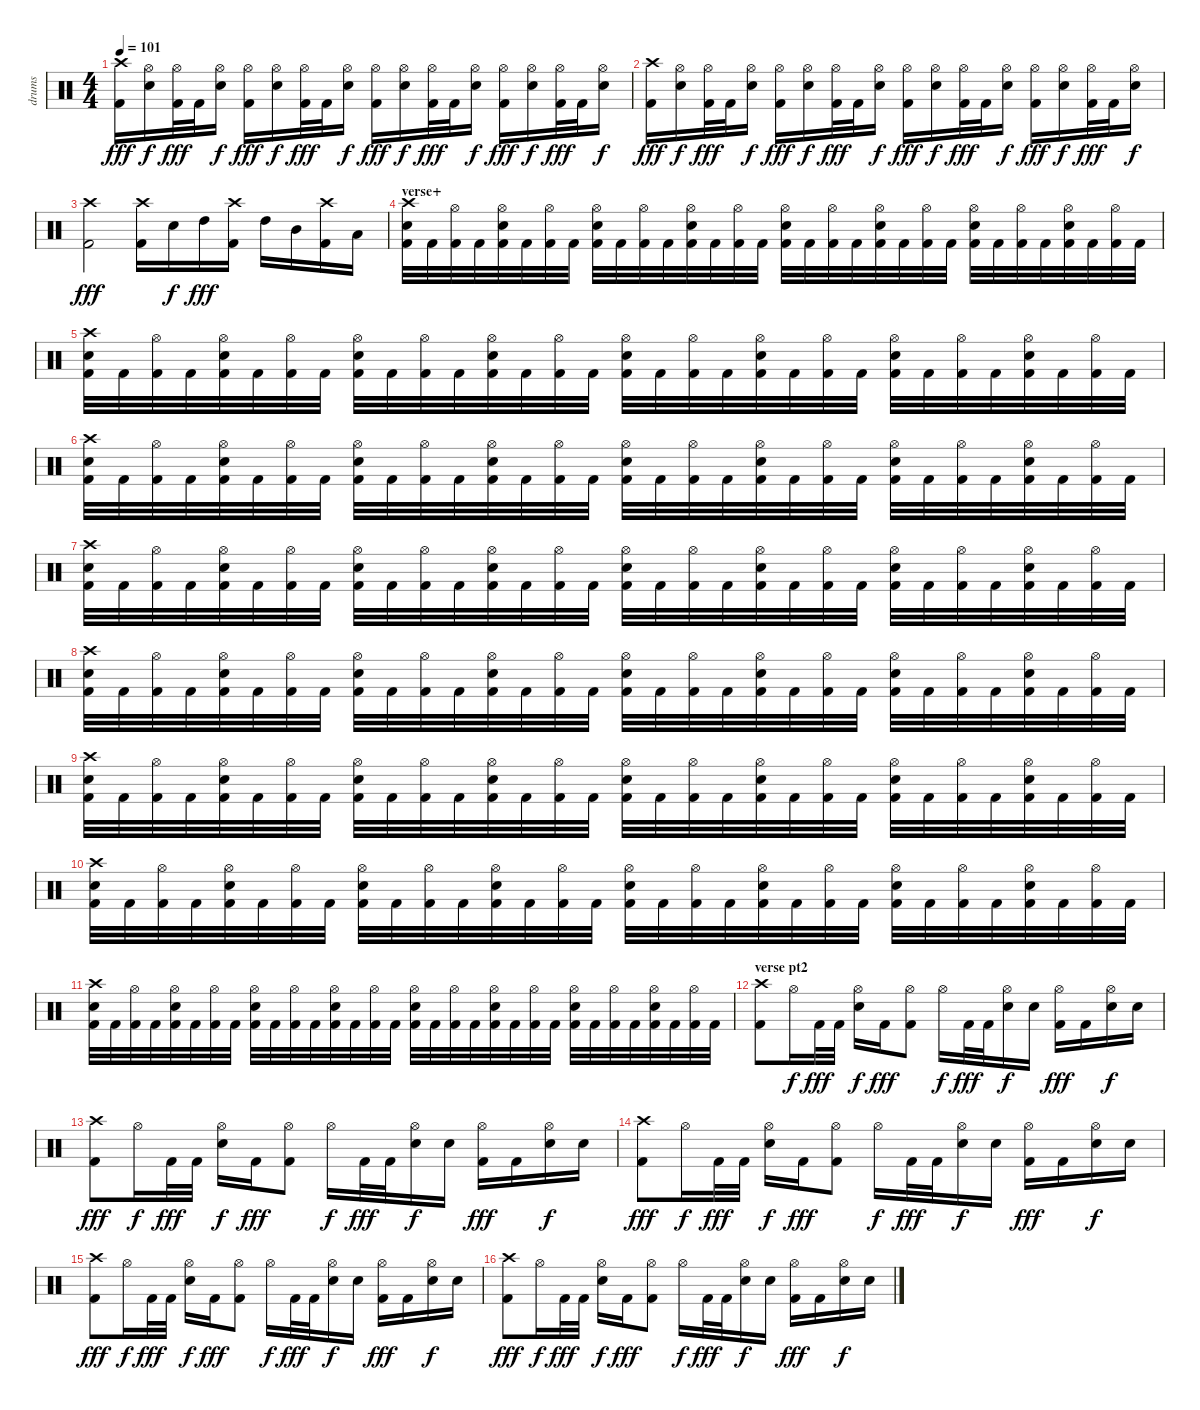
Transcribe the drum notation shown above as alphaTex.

\track ("drums" "drums") {instrument percussion}
\staff {score}
\articulation defaults
\ts (4 4)
\tempo 101
\clef neutral
\ks c
("Crash high (hit)" "Kick (hit) 2").16{dy fff} ("Hi-Hat (open)" "Snare (hit) 2").16{dy f} ("Hi-Hat (open)" "Kick (hit) 2").32{dy fff} "Kick (hit) 2".32 ("Hi-Hat (open)" "Snare (hit) 2").16{dy f} ("Hi-Hat (open)" "Kick (hit) 2").16{dy fff} ("Hi-Hat (open)" "Snare (hit) 2").16{dy f} ("Hi-Hat (open)" "Kick (hit) 2").32{dy fff} "Kick (hit) 2".32 ("Hi-Hat (open)" "Snare (hit) 2").16{dy f} ("Hi-Hat (open)" "Kick (hit) 2").16{dy fff} ("Hi-Hat (open)" "Snare (hit) 2").16{dy f} ("Hi-Hat (open)" "Kick (hit) 2").32{dy fff} "Kick (hit) 2".32 ("Hi-Hat (open)" "Snare (hit) 2").16{dy f} ("Hi-Hat (open)" "Kick (hit) 2").16{dy fff} ("Hi-Hat (open)" "Snare (hit) 2").16{dy f} ("Hi-Hat (open)" "Kick (hit) 2").32{dy fff} "Kick (hit) 2".32 ("Hi-Hat (open)" "Snare (hit) 2").16{dy f} |
("Crash high (hit)" "Kick (hit) 2").16{dy fff} ("Hi-Hat (open)" "Snare (hit) 2").16{dy f} ("Hi-Hat (open)" "Kick (hit) 2").32{dy fff} "Kick (hit) 2".32 ("Hi-Hat (open)" "Snare (hit) 2").16{dy f} ("Hi-Hat (open)" "Kick (hit) 2").16{dy fff} ("Hi-Hat (open)" "Snare (hit) 2").16{dy f} ("Hi-Hat (open)" "Kick (hit) 2").32{dy fff} "Kick (hit) 2".32 ("Hi-Hat (open)" "Snare (hit) 2").16{dy f} ("Hi-Hat (open)" "Kick (hit) 2").16{dy fff} ("Hi-Hat (open)" "Snare (hit) 2").16{dy f} ("Hi-Hat (open)" "Kick (hit) 2").32{dy fff} "Kick (hit) 2".32 ("Hi-Hat (open)" "Snare (hit) 2").16{dy f} ("Hi-Hat (open)" "Kick (hit) 2").16{dy fff} ("Hi-Hat (open)" "Snare (hit) 2").16{dy f} ("Hi-Hat (open)" "Kick (hit) 2").32{dy fff} "Kick (hit) 2".32 ("Hi-Hat (open)" "Snare (hit) 2").16{dy f} |
("Crash high (hit)" "Kick (hit) 2").2{dy fff} ("Crash high (hit)" "Kick (hit) 2").16 "Snare (hit) 2".16{dy f} "High Tom (hit)".16{dy fff} ("Crash high (hit)" "Kick (hit) 2").16 "High Tom (hit)".16 "Mid Tom (hit)".16 ("Crash high (hit)" "Kick (hit) 2").16 "Low Tom (hit)".16 |
\section ("" "verse+")
("Crash high (hit)" "Snare (hit) 2" "Kick (hit) 2").32 "Kick (hit) 2".32 ("Hi-Hat (open)" "Kick (hit) 2").32 "Kick (hit) 2".32 ("Hi-Hat (open)" "Snare (hit) 2" "Kick (hit) 2").32 "Kick (hit) 2".32 ("Hi-Hat (open)" "Kick (hit) 2").32 "Kick (hit) 2".32 ("Hi-Hat (open)" "Snare (hit) 2" "Kick (hit) 2").32 "Kick (hit) 2".32 ("Hi-Hat (open)" "Kick (hit) 2").32 "Kick (hit) 2".32 ("Hi-Hat (open)" "Snare (hit) 2" "Kick (hit) 2").32 "Kick (hit) 2".32 ("Hi-Hat (open)" "Kick (hit) 2").32 "Kick (hit) 2".32 ("Hi-Hat (open)" "Snare (hit) 2" "Kick (hit) 2").32 "Kick (hit) 2".32 ("Hi-Hat (open)" "Kick (hit) 2").32 "Kick (hit) 2".32 ("Hi-Hat (open)" "Snare (hit) 2" "Kick (hit) 2").32 "Kick (hit) 2".32 ("Hi-Hat (open)" "Kick (hit) 2").32 "Kick (hit) 2".32 ("Hi-Hat (open)" "Snare (hit) 2" "Kick (hit) 2").32 "Kick (hit) 2".32 ("Hi-Hat (open)" "Kick (hit) 2").32 "Kick (hit) 2".32 ("Hi-Hat (open)" "Snare (hit) 2" "Kick (hit) 2").32 "Kick (hit) 2".32 ("Hi-Hat (open)" "Kick (hit) 2").32 "Kick (hit) 2".32 |
("Crash high (hit)" "Snare (hit) 2" "Kick (hit) 2").32 "Kick (hit) 2".32 ("Hi-Hat (open)" "Kick (hit) 2").32 "Kick (hit) 2".32 ("Hi-Hat (open)" "Snare (hit) 2" "Kick (hit) 2").32 "Kick (hit) 2".32 ("Hi-Hat (open)" "Kick (hit) 2").32 "Kick (hit) 2".32 ("Hi-Hat (open)" "Snare (hit) 2" "Kick (hit) 2").32 "Kick (hit) 2".32 ("Hi-Hat (open)" "Kick (hit) 2").32 "Kick (hit) 2".32 ("Hi-Hat (open)" "Snare (hit) 2" "Kick (hit) 2").32 "Kick (hit) 2".32 ("Hi-Hat (open)" "Kick (hit) 2").32 "Kick (hit) 2".32 ("Hi-Hat (open)" "Snare (hit) 2" "Kick (hit) 2").32 "Kick (hit) 2".32 ("Hi-Hat (open)" "Kick (hit) 2").32 "Kick (hit) 2".32 ("Hi-Hat (open)" "Snare (hit) 2" "Kick (hit) 2").32 "Kick (hit) 2".32 ("Hi-Hat (open)" "Kick (hit) 2").32 "Kick (hit) 2".32 ("Hi-Hat (open)" "Snare (hit) 2" "Kick (hit) 2").32 "Kick (hit) 2".32 ("Hi-Hat (open)" "Kick (hit) 2").32 "Kick (hit) 2".32 ("Hi-Hat (open)" "Snare (hit) 2" "Kick (hit) 2").32 "Kick (hit) 2".32 ("Hi-Hat (open)" "Kick (hit) 2").32 "Kick (hit) 2".32 |
("Crash high (hit)" "Snare (hit) 2" "Kick (hit) 2").32 "Kick (hit) 2".32 ("Hi-Hat (open)" "Kick (hit) 2").32 "Kick (hit) 2".32 ("Hi-Hat (open)" "Snare (hit) 2" "Kick (hit) 2").32 "Kick (hit) 2".32 ("Hi-Hat (open)" "Kick (hit) 2").32 "Kick (hit) 2".32 ("Hi-Hat (open)" "Snare (hit) 2" "Kick (hit) 2").32 "Kick (hit) 2".32 ("Hi-Hat (open)" "Kick (hit) 2").32 "Kick (hit) 2".32 ("Hi-Hat (open)" "Snare (hit) 2" "Kick (hit) 2").32 "Kick (hit) 2".32 ("Hi-Hat (open)" "Kick (hit) 2").32 "Kick (hit) 2".32 ("Hi-Hat (open)" "Snare (hit) 2" "Kick (hit) 2").32 "Kick (hit) 2".32 ("Hi-Hat (open)" "Kick (hit) 2").32 "Kick (hit) 2".32 ("Hi-Hat (open)" "Snare (hit) 2" "Kick (hit) 2").32 "Kick (hit) 2".32 ("Hi-Hat (open)" "Kick (hit) 2").32 "Kick (hit) 2".32 ("Hi-Hat (open)" "Snare (hit) 2" "Kick (hit) 2").32 "Kick (hit) 2".32 ("Hi-Hat (open)" "Kick (hit) 2").32 "Kick (hit) 2".32 ("Hi-Hat (open)" "Snare (hit) 2" "Kick (hit) 2").32 "Kick (hit) 2".32 ("Hi-Hat (open)" "Kick (hit) 2").32 "Kick (hit) 2".32 |
("Crash high (hit)" "Snare (hit) 2" "Kick (hit) 2").32 "Kick (hit) 2".32 ("Hi-Hat (open)" "Kick (hit) 2").32 "Kick (hit) 2".32 ("Hi-Hat (open)" "Snare (hit) 2" "Kick (hit) 2").32 "Kick (hit) 2".32 ("Hi-Hat (open)" "Kick (hit) 2").32 "Kick (hit) 2".32 ("Hi-Hat (open)" "Snare (hit) 2" "Kick (hit) 2").32 "Kick (hit) 2".32 ("Hi-Hat (open)" "Kick (hit) 2").32 "Kick (hit) 2".32 ("Hi-Hat (open)" "Snare (hit) 2" "Kick (hit) 2").32 "Kick (hit) 2".32 ("Hi-Hat (open)" "Kick (hit) 2").32 "Kick (hit) 2".32 ("Hi-Hat (open)" "Snare (hit) 2" "Kick (hit) 2").32 "Kick (hit) 2".32 ("Hi-Hat (open)" "Kick (hit) 2").32 "Kick (hit) 2".32 ("Hi-Hat (open)" "Snare (hit) 2" "Kick (hit) 2").32 "Kick (hit) 2".32 ("Hi-Hat (open)" "Kick (hit) 2").32 "Kick (hit) 2".32 ("Hi-Hat (open)" "Snare (hit) 2" "Kick (hit) 2").32 "Kick (hit) 2".32 ("Hi-Hat (open)" "Kick (hit) 2").32 "Kick (hit) 2".32 ("Hi-Hat (open)" "Snare (hit) 2" "Kick (hit) 2").32 "Kick (hit) 2".32 ("Hi-Hat (open)" "Kick (hit) 2").32 "Kick (hit) 2".32 |
("Crash high (hit)" "Snare (hit) 2" "Kick (hit) 2").32 "Kick (hit) 2".32 ("Hi-Hat (open)" "Kick (hit) 2").32 "Kick (hit) 2".32 ("Hi-Hat (open)" "Snare (hit) 2" "Kick (hit) 2").32 "Kick (hit) 2".32 ("Hi-Hat (open)" "Kick (hit) 2").32 "Kick (hit) 2".32 ("Hi-Hat (open)" "Snare (hit) 2" "Kick (hit) 2").32 "Kick (hit) 2".32 ("Hi-Hat (open)" "Kick (hit) 2").32 "Kick (hit) 2".32 ("Hi-Hat (open)" "Snare (hit) 2" "Kick (hit) 2").32 "Kick (hit) 2".32 ("Hi-Hat (open)" "Kick (hit) 2").32 "Kick (hit) 2".32 ("Hi-Hat (open)" "Snare (hit) 2" "Kick (hit) 2").32 "Kick (hit) 2".32 ("Hi-Hat (open)" "Kick (hit) 2").32 "Kick (hit) 2".32 ("Hi-Hat (open)" "Snare (hit) 2" "Kick (hit) 2").32 "Kick (hit) 2".32 ("Hi-Hat (open)" "Kick (hit) 2").32 "Kick (hit) 2".32 ("Hi-Hat (open)" "Snare (hit) 2" "Kick (hit) 2").32 "Kick (hit) 2".32 ("Hi-Hat (open)" "Kick (hit) 2").32 "Kick (hit) 2".32 ("Hi-Hat (open)" "Snare (hit) 2" "Kick (hit) 2").32 "Kick (hit) 2".32 ("Hi-Hat (open)" "Kick (hit) 2").32 "Kick (hit) 2".32 |
("Crash high (hit)" "Snare (hit) 2" "Kick (hit) 2").32 "Kick (hit) 2".32 ("Hi-Hat (open)" "Kick (hit) 2").32 "Kick (hit) 2".32 ("Hi-Hat (open)" "Snare (hit) 2" "Kick (hit) 2").32 "Kick (hit) 2".32 ("Hi-Hat (open)" "Kick (hit) 2").32 "Kick (hit) 2".32 ("Hi-Hat (open)" "Snare (hit) 2" "Kick (hit) 2").32 "Kick (hit) 2".32 ("Hi-Hat (open)" "Kick (hit) 2").32 "Kick (hit) 2".32 ("Hi-Hat (open)" "Snare (hit) 2" "Kick (hit) 2").32 "Kick (hit) 2".32 ("Hi-Hat (open)" "Kick (hit) 2").32 "Kick (hit) 2".32 ("Hi-Hat (open)" "Snare (hit) 2" "Kick (hit) 2").32 "Kick (hit) 2".32 ("Hi-Hat (open)" "Kick (hit) 2").32 "Kick (hit) 2".32 ("Hi-Hat (open)" "Snare (hit) 2" "Kick (hit) 2").32 "Kick (hit) 2".32 ("Hi-Hat (open)" "Kick (hit) 2").32 "Kick (hit) 2".32 ("Hi-Hat (open)" "Snare (hit) 2" "Kick (hit) 2").32 "Kick (hit) 2".32 ("Hi-Hat (open)" "Kick (hit) 2").32 "Kick (hit) 2".32 ("Hi-Hat (open)" "Snare (hit) 2" "Kick (hit) 2").32 "Kick (hit) 2".32 ("Hi-Hat (open)" "Kick (hit) 2").32 "Kick (hit) 2".32 |
("Crash high (hit)" "Snare (hit) 2" "Kick (hit) 2").32 "Kick (hit) 2".32 ("Hi-Hat (open)" "Kick (hit) 2").32 "Kick (hit) 2".32 ("Hi-Hat (open)" "Snare (hit) 2" "Kick (hit) 2").32 "Kick (hit) 2".32 ("Hi-Hat (open)" "Kick (hit) 2").32 "Kick (hit) 2".32 ("Hi-Hat (open)" "Snare (hit) 2" "Kick (hit) 2").32 "Kick (hit) 2".32 ("Hi-Hat (open)" "Kick (hit) 2").32 "Kick (hit) 2".32 ("Hi-Hat (open)" "Snare (hit) 2" "Kick (hit) 2").32 "Kick (hit) 2".32 ("Hi-Hat (open)" "Kick (hit) 2").32 "Kick (hit) 2".32 ("Hi-Hat (open)" "Snare (hit) 2" "Kick (hit) 2").32 "Kick (hit) 2".32 ("Hi-Hat (open)" "Kick (hit) 2").32 "Kick (hit) 2".32 ("Hi-Hat (open)" "Snare (hit) 2" "Kick (hit) 2").32 "Kick (hit) 2".32 ("Hi-Hat (open)" "Kick (hit) 2").32 "Kick (hit) 2".32 ("Hi-Hat (open)" "Snare (hit) 2" "Kick (hit) 2").32 "Kick (hit) 2".32 ("Hi-Hat (open)" "Kick (hit) 2").32 "Kick (hit) 2".32 ("Hi-Hat (open)" "Snare (hit) 2" "Kick (hit) 2").32 "Kick (hit) 2".32 ("Hi-Hat (open)" "Kick (hit) 2").32 "Kick (hit) 2".32 |
("Crash high (hit)" "Snare (hit) 2" "Kick (hit) 2").32 "Kick (hit) 2".32 ("Hi-Hat (open)" "Kick (hit) 2").32 "Kick (hit) 2".32 ("Hi-Hat (open)" "Snare (hit) 2" "Kick (hit) 2").32 "Kick (hit) 2".32 ("Hi-Hat (open)" "Kick (hit) 2").32 "Kick (hit) 2".32 ("Hi-Hat (open)" "Snare (hit) 2" "Kick (hit) 2").32 "Kick (hit) 2".32 ("Hi-Hat (open)" "Kick (hit) 2").32 "Kick (hit) 2".32 ("Hi-Hat (open)" "Snare (hit) 2" "Kick (hit) 2").32 "Kick (hit) 2".32 ("Hi-Hat (open)" "Kick (hit) 2").32 "Kick (hit) 2".32 ("Hi-Hat (open)" "Snare (hit) 2" "Kick (hit) 2").32 "Kick (hit) 2".32 ("Hi-Hat (open)" "Kick (hit) 2").32 "Kick (hit) 2".32 ("Hi-Hat (open)" "Snare (hit) 2" "Kick (hit) 2").32 "Kick (hit) 2".32 ("Hi-Hat (open)" "Kick (hit) 2").32 "Kick (hit) 2".32 ("Hi-Hat (open)" "Snare (hit) 2" "Kick (hit) 2").32 "Kick (hit) 2".32 ("Hi-Hat (open)" "Kick (hit) 2").32 "Kick (hit) 2".32 ("Hi-Hat (open)" "Snare (hit) 2" "Kick (hit) 2").32 "Kick (hit) 2".32 ("Hi-Hat (open)" "Kick (hit) 2").32 "Kick (hit) 2".32 |
\section ("" "verse pt2")
("Crash high (hit)" "Kick (hit) 2").8 "Hi-Hat (open)".16{dy f} "Kick (hit) 2".32{dy fff} "Kick (hit) 2".32 ("Hi-Hat (open)" "Snare (hit) 2").16{dy f} "Kick (hit) 2".16{dy fff} ("Hi-Hat (open)" "Kick (hit) 2").8 "Hi-Hat (open)".16{dy f} "Kick (hit) 2".32{dy fff} "Kick (hit) 2".32 ("Hi-Hat (open)" "Snare (hit) 2").16{dy f} "Snare (hit) 2".16 ("Hi-Hat (open)" "Kick (hit) 2").16{dy fff} "Kick (hit) 2".16 ("Hi-Hat (open)" "Snare (hit) 2").16{dy f} "Snare (hit) 2".16 |
("Crash high (hit)" "Kick (hit) 2").8{dy fff} "Hi-Hat (open)".16{dy f} "Kick (hit) 2".32{dy fff} "Kick (hit) 2".32 ("Hi-Hat (open)" "Snare (hit) 2").16{dy f} "Kick (hit) 2".16{dy fff} ("Hi-Hat (open)" "Kick (hit) 2").8 "Hi-Hat (open)".16{dy f} "Kick (hit) 2".32{dy fff} "Kick (hit) 2".32 ("Hi-Hat (open)" "Snare (hit) 2").16{dy f} "Snare (hit) 2".16 ("Hi-Hat (open)" "Kick (hit) 2").16{dy fff} "Kick (hit) 2".16 ("Hi-Hat (open)" "Snare (hit) 2").16{dy f} "Snare (hit) 2".16 |
("Crash high (hit)" "Kick (hit) 2").8{dy fff} "Hi-Hat (open)".16{dy f} "Kick (hit) 2".32{dy fff} "Kick (hit) 2".32 ("Hi-Hat (open)" "Snare (hit) 2").16{dy f} "Kick (hit) 2".16{dy fff} ("Hi-Hat (open)" "Kick (hit) 2").8 "Hi-Hat (open)".16{dy f} "Kick (hit) 2".32{dy fff} "Kick (hit) 2".32 ("Hi-Hat (open)" "Snare (hit) 2").16{dy f} "Snare (hit) 2".16 ("Hi-Hat (open)" "Kick (hit) 2").16{dy fff} "Kick (hit) 2".16 ("Hi-Hat (open)" "Snare (hit) 2").16{dy f} "Snare (hit) 2".16 |
("Crash high (hit)" "Kick (hit) 2").8{dy fff} "Hi-Hat (open)".16{dy f} "Kick (hit) 2".32{dy fff} "Kick (hit) 2".32 ("Hi-Hat (open)" "Snare (hit) 2").16{dy f} "Kick (hit) 2".16{dy fff} ("Hi-Hat (open)" "Kick (hit) 2").8 "Hi-Hat (open)".16{dy f} "Kick (hit) 2".32{dy fff} "Kick (hit) 2".32 ("Hi-Hat (open)" "Snare (hit) 2").16{dy f} "Snare (hit) 2".16 ("Hi-Hat (open)" "Kick (hit) 2").16{dy fff} "Kick (hit) 2".16 ("Hi-Hat (open)" "Snare (hit) 2").16{dy f} "Snare (hit) 2".16 |
("Crash high (hit)" "Kick (hit) 2").8{dy fff} "Hi-Hat (open)".16{dy f} "Kick (hit) 2".32{dy fff} "Kick (hit) 2".32 ("Hi-Hat (open)" "Snare (hit) 2").16{dy f} "Kick (hit) 2".16{dy fff} ("Hi-Hat (open)" "Kick (hit) 2").8 "Hi-Hat (open)".16{dy f} "Kick (hit) 2".32{dy fff} "Kick (hit) 2".32 ("Hi-Hat (open)" "Snare (hit) 2").16{dy f} "Snare (hit) 2".16 ("Hi-Hat (open)" "Kick (hit) 2").16{dy fff} "Kick (hit) 2".16 ("Hi-Hat (open)" "Snare (hit) 2").16{dy f} "Snare (hit) 2".16
